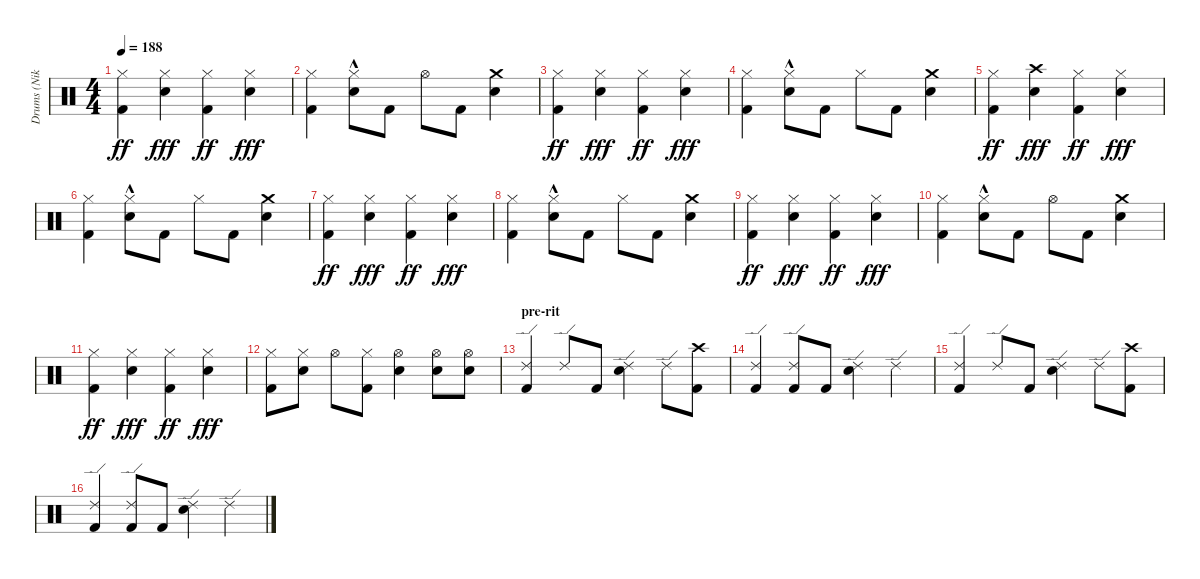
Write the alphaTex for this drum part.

\track ("Drums (Niko)" "Drums (Nik") {instrument percussion}
\staff {score}
\articulation defaults
\ts (4 4)
\tempo 188
\clef neutral
\ks c
("Hi-Hat (closed)" "Kick (hit) 2").4{dy ff} ("Hi-Hat (closed)" "Electric Snare (hit)").4{dy fff} ("Hi-Hat (closed)" "Kick (hit) 2").4{dy ff} ("Hi-Hat (closed)" "Electric Snare (hit)").4{dy fff} |
("Hi-Hat (closed)" "Kick (hit) 2").4 ("Hi-Hat (closed)" "Electric Snare (hit)"{hac}).8 "Kick (hit) 2".8 "Hi-Hat (open)".8 "Kick (hit) 2".8 ("Crash medium (hit)" "Electric Snare (hit)").4 |
("Hi-Hat (closed)" "Kick (hit) 2").4{dy ff} ("Hi-Hat (closed)" "Electric Snare (hit)").4{dy fff} ("Hi-Hat (closed)" "Kick (hit) 2").4{dy ff} ("Hi-Hat (closed)" "Electric Snare (hit)").4{dy fff} |
("Hi-Hat (closed)" "Kick (hit) 2").4 ("Hi-Hat (closed)" "Electric Snare (hit)"{hac}).8 "Kick (hit) 2".8 "Hi-Hat (closed)".8 "Kick (hit) 2".8 ("Crash medium (hit)" "Electric Snare (hit)").4 |
("Hi-Hat (closed)" "Kick (hit) 2").4{dy ff} ("Crash high (hit)" "Electric Snare (hit)").4{dy fff} ("Hi-Hat (closed)" "Kick (hit) 2").4{dy ff} ("Hi-Hat (closed)" "Electric Snare (hit)").4{dy fff} |
("Hi-Hat (closed)" "Kick (hit) 2").4 ("Hi-Hat (closed)" "Electric Snare (hit)"{hac}).8 "Kick (hit) 2".8 "Hi-Hat (closed)".8 "Kick (hit) 2".8 ("Crash medium (hit)" "Electric Snare (hit)").4 |
("Hi-Hat (closed)" "Kick (hit) 2").4{dy ff} ("Hi-Hat (closed)" "Electric Snare (hit)").4{dy fff} ("Hi-Hat (closed)" "Kick (hit) 2").4{dy ff} ("Hi-Hat (closed)" "Electric Snare (hit)").4{dy fff} |
("Hi-Hat (closed)" "Kick (hit) 2").4 ("Hi-Hat (closed)" "Electric Snare (hit)"{hac}).8 "Kick (hit) 2".8 "Hi-Hat (closed)".8 "Kick (hit) 2".8 ("Crash medium (hit)" "Electric Snare (hit)").4 |
("Hi-Hat (closed)" "Kick (hit) 2").4{dy ff} ("Hi-Hat (closed)" "Electric Snare (hit)").4{dy fff} ("Hi-Hat (closed)" "Kick (hit) 2").4{dy ff} ("Hi-Hat (closed)" "Electric Snare (hit)").4{dy fff} |
("Hi-Hat (closed)" "Kick (hit) 2").4 ("Hi-Hat (closed)" "Electric Snare (hit)"{hac}).8 "Kick (hit) 2".8 "Hi-Hat (open)".8 "Kick (hit) 2".8 ("Crash medium (hit)" "Electric Snare (hit)").4 |
("Hi-Hat (closed)" "Kick (hit) 2").4{dy ff} ("Hi-Hat (closed)" "Electric Snare (hit)").4{dy fff} ("Hi-Hat (closed)" "Kick (hit) 2").4{dy ff} ("Hi-Hat (closed)" "Electric Snare (hit)").4{dy fff} |
("Hi-Hat (closed)" "Kick (hit) 2").8 ("Hi-Hat (closed)" "Electric Snare (hit)").8 "Hi-Hat (open)".8 ("Hi-Hat (closed)" "Kick (hit) 2").8 ("Hi-Hat (open)" "Electric Snare (hit)").4 ("Hi-Hat (open)" "Electric Snare (hit)").8 ("Hi-Hat (open)" "Electric Snare (hit)").8 |
\section ("" "pre-rit")
("Ride (edge) 2" "Kick (hit) 2").4 "Ride (edge) 2".8 "Kick (hit) 2".8 ("Ride (edge) 2" "Electric Snare (hit)").4 "Ride (edge) 2".8 ("Crash high (hit)" "Kick (hit) 2").8 |
("Ride (edge) 2" "Kick (hit) 2").4 ("Ride (edge) 2" "Kick (hit) 2").8 "Kick (hit) 2".8 ("Ride (edge) 2" "Electric Snare (hit)").4 "Ride (edge) 2".4 |
("Ride (edge) 2" "Kick (hit) 2").4 "Ride (edge) 2".8 "Kick (hit) 2".8 ("Ride (edge) 2" "Electric Snare (hit)").4 "Ride (edge) 2".8 ("Crash high (hit)" "Kick (hit) 2").8 |
("Ride (edge) 2" "Kick (hit) 2").4 ("Ride (edge) 2" "Kick (hit) 2").8 "Kick (hit) 2".8 ("Ride (edge) 2" "Electric Snare (hit)").4 "Ride (edge) 2".4
